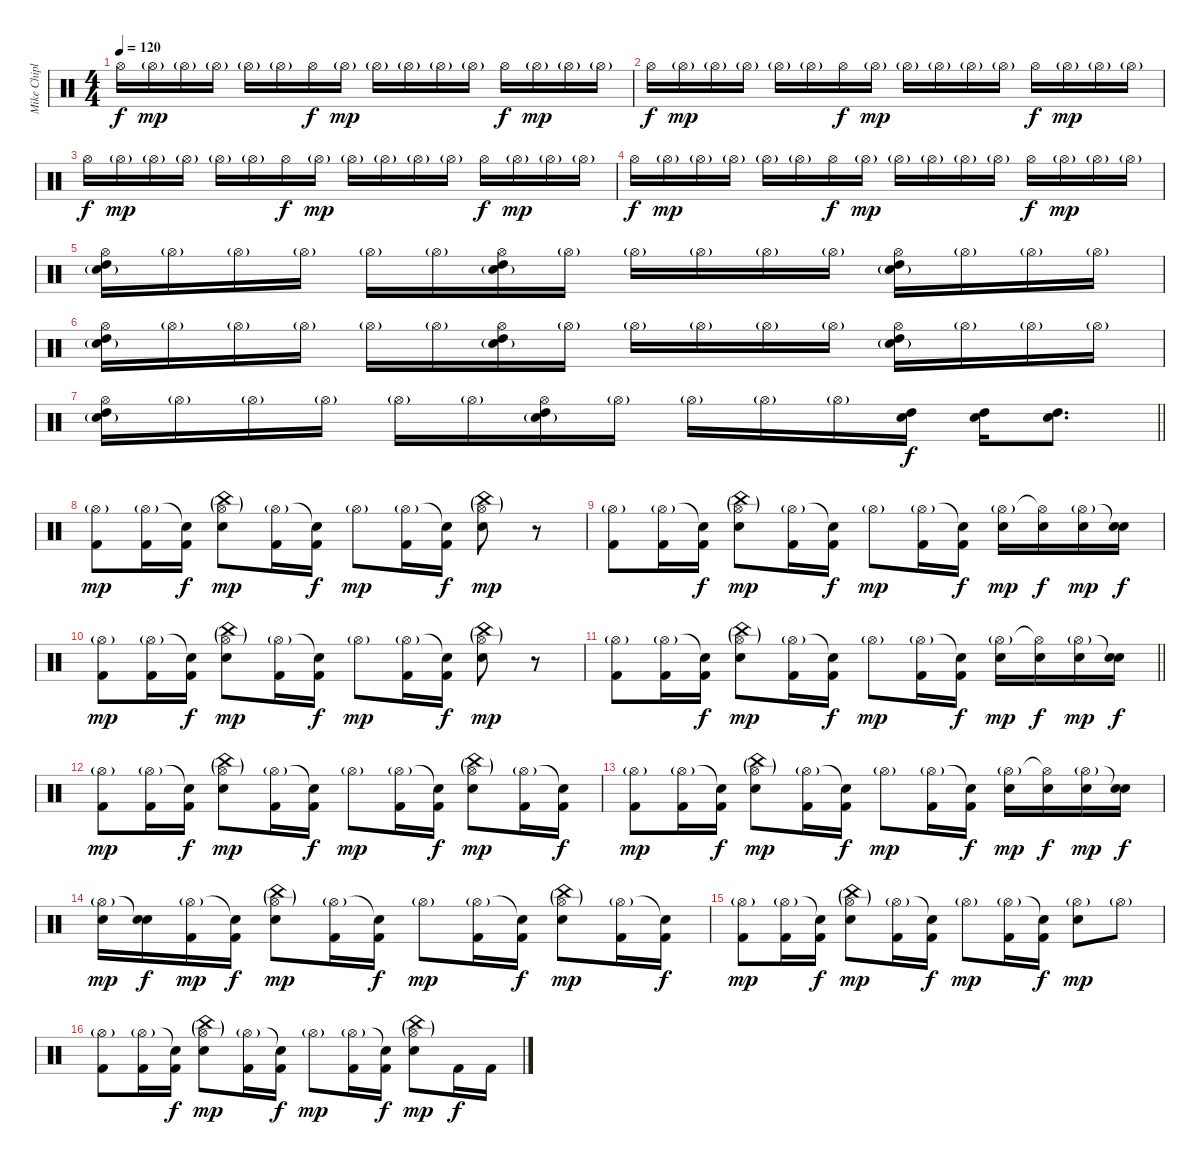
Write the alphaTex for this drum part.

\track ("Mike Chiplin" "Mike Chipl") {instrument percussion}
\staff {score}
\articulation defaults
\ts (4 4)
\tempo 120
\clef neutral
\ks c "Hi-Hat (open)".16{dy f} "Hi-Hat (open)"{g}.16{dy mp} "Hi-Hat (open)"{g}.16 "Hi-Hat (open)"{g}.16 "Hi-Hat (open)"{g}.16 "Hi-Hat (open)"{g}.16 "Hi-Hat (open)".16{dy f} "Hi-Hat (open)"{g}.16{dy mp} "Hi-Hat (open)"{g}.16 "Hi-Hat (open)"{g}.16 "Hi-Hat (open)"{g}.16 "Hi-Hat (open)"{g}.16 "Hi-Hat (open)".16{dy f} "Hi-Hat (open)"{g}.16{dy mp} "Hi-Hat (open)"{g}.16 "Hi-Hat (open)"{g}.16
|
"Hi-Hat (open)".16{dy f} "Hi-Hat (open)"{g}.16{dy mp} "Hi-Hat (open)"{g}.16 "Hi-Hat (open)"{g}.16 "Hi-Hat (open)"{g}.16 "Hi-Hat (open)"{g}.16 "Hi-Hat (open)".16{dy f} "Hi-Hat (open)"{g}.16{dy mp} "Hi-Hat (open)"{g}.16 "Hi-Hat (open)"{g}.16 "Hi-Hat (open)"{g}.16 "Hi-Hat (open)"{g}.16 "Hi-Hat (open)".16{dy f} "Hi-Hat (open)"{g}.16{dy mp} "Hi-Hat (open)"{g}.16 "Hi-Hat (open)"{g}.16 |
"Hi-Hat (open)".16{dy f} "Hi-Hat (open)"{g}.16{dy mp} "Hi-Hat (open)"{g}.16 "Hi-Hat (open)"{g}.16 "Hi-Hat (open)"{g}.16 "Hi-Hat (open)"{g}.16 "Hi-Hat (open)".16{dy f} "Hi-Hat (open)"{g}.16{dy mp} "Hi-Hat (open)"{g}.16 "Hi-Hat (open)"{g}.16 "Hi-Hat (open)"{g}.16 "Hi-Hat (open)"{g}.16 "Hi-Hat (open)".16{dy f} "Hi-Hat (open)"{g}.16{dy mp} "Hi-Hat (open)"{g}.16 "Hi-Hat (open)"{g}.16 |
"Hi-Hat (open)".16{dy f} "Hi-Hat (open)"{g}.16{dy mp} "Hi-Hat (open)"{g}.16 "Hi-Hat (open)"{g}.16 "Hi-Hat (open)"{g}.16 "Hi-Hat (open)"{g}.16 "Hi-Hat (open)".16{dy f} "Hi-Hat (open)"{g}.16{dy mp} "Hi-Hat (open)"{g}.16 "Hi-Hat (open)"{g}.16 "Hi-Hat (open)"{g}.16 "Hi-Hat (open)"{g}.16 "Hi-Hat (open)".16{dy f} "Hi-Hat (open)"{g}.16{dy mp} "Hi-Hat (open)"{g}.16 "Hi-Hat (open)"{g}.16 |
("Hi-Hat (open)" "High Tom (hit)" "Electric Snare (hit)"{g}).16 "Hi-Hat (open)"{g}.16 "Hi-Hat (open)"{g}.16 "Hi-Hat (open)"{g}.16 "Hi-Hat (open)"{g}.16 "Hi-Hat (open)"{g}.16 ("Hi-Hat (open)" "High Tom (hit)" "Electric Snare (hit)"{g}).16 "Hi-Hat (open)"{g}.16 "Hi-Hat (open)"{g}.16 "Hi-Hat (open)"{g}.16 "Hi-Hat (open)"{g}.16 "Hi-Hat (open)"{g}.16 ("Hi-Hat (open)" "High Tom (hit)" "Electric Snare (hit)"{g}).16 "Hi-Hat (open)"{g}.16 "Hi-Hat (open)"{g}.16 "Hi-Hat (open)"{g}.16 |
("Hi-Hat (open)" "High Tom (hit)" "Electric Snare (hit)"{g}).16 "Hi-Hat (open)"{g}.16 "Hi-Hat (open)"{g}.16 "Hi-Hat (open)"{g}.16 "Hi-Hat (open)"{g}.16 "Hi-Hat (open)"{g}.16 ("Hi-Hat (open)" "High Tom (hit)" "Electric Snare (hit)"{g}).16 "Hi-Hat (open)"{g}.16 "Hi-Hat (open)"{g}.16 "Hi-Hat (open)"{g}.16 "Hi-Hat (open)"{g}.16 "Hi-Hat (open)"{g}.16 ("Hi-Hat (open)" "High Tom (hit)" "Electric Snare (hit)"{g}).16 "Hi-Hat (open)"{g}.16 "Hi-Hat (open)"{g}.16 "Hi-Hat (open)"{g}.16 |
\barLineRight lightlight
("Hi-Hat (open)" "High Tom (hit)" "Electric Snare (hit)"{g}).16 "Hi-Hat (open)"{g}.16 "Hi-Hat (open)"{g}.16 "Hi-Hat (open)"{g}.16 "Hi-Hat (open)"{g}.16 "Hi-Hat (open)"{g}.16 ("Hi-Hat (open)" "High Tom (hit)" "Electric Snare (hit)"{g}).16 "Hi-Hat (open)"{g}.16 "Hi-Hat (open)"{g}.16 "Hi-Hat (open)"{g}.16 "Hi-Hat (open)"{g}.16 ("High Tom (hit)" "Electric Snare (hit)").16{dy f} ("High Tom (hit)" "Electric Snare (hit)").16 ("High Tom (hit)" "Electric Snare (hit)").8{d} |
("Hi-Hat (open)"{g} "Kick (hit) 2").8{dy mp} ("Hi-Hat (open)"{g} "Kick (hit) 2").16 ("Snare (hit)"{t} "Kick (hit) 2").16{dy f} ("China (hit)"{g} "Hi-Hat (open)"{g} "Electric Snare (hit)").8{dy mp} ("Hi-Hat (open)"{g} "Kick (hit) 2").16 ("Snare (hit)"{t} "Kick (hit) 2").16{dy f} "Hi-Hat (open)"{g}.8{dy mp} ("Hi-Hat (open)"{g} "Kick (hit) 2").16 ("Snare (hit)"{t} "Kick (hit) 2").16{dy f} ("China (hit)"{g} "Hi-Hat (open)"{g} "Electric Snare (hit)").8{dy mp} r.8 |
("Hi-Hat (open)"{g} "Kick (hit) 2").8 ("Hi-Hat (open)"{g} "Kick (hit) 2").16 ("Snare (hit)"{t} "Kick (hit) 2").16{dy f} ("China (hit)"{g} "Hi-Hat (open)"{g} "Electric Snare (hit)").8{dy mp} ("Hi-Hat (open)"{g} "Kick (hit) 2").16 ("Snare (hit)"{t} "Kick (hit) 2").16{dy f} "Hi-Hat (open)"{g}.8{dy mp} ("Hi-Hat (open)"{g} "Kick (hit) 2").16 ("Snare (hit)"{t} "Kick (hit) 2").16{dy f} ("Hi-Hat (open)"{g} "Electric Snare (hit)").16{dy mp} ("Hi-Hat (open)"{t} "Electric Snare (hit)").16{dy f} ("Hi-Hat (open)"{g} "Electric Snare (hit)").16{dy mp} ("Snare (hit)"{t} "Electric Snare (hit)").16{dy f} |
("Hi-Hat (open)"{g} "Kick (hit) 2").8{dy mp} ("Hi-Hat (open)"{g} "Kick (hit) 2").16 ("Snare (hit)"{t} "Kick (hit) 2").16{dy f} ("China (hit)"{g} "Hi-Hat (open)"{g} "Electric Snare (hit)").8{dy mp} ("Hi-Hat (open)"{g} "Kick (hit) 2").16 ("Snare (hit)"{t} "Kick (hit) 2").16{dy f} "Hi-Hat (open)"{g}.8{dy mp} ("Hi-Hat (open)"{g} "Kick (hit) 2").16 ("Snare (hit)"{t} "Kick (hit) 2").16{dy f} ("China (hit)"{g} "Hi-Hat (open)"{g} "Electric Snare (hit)").8{dy mp} r.8 |
\barLineRight lightlight
("Hi-Hat (open)"{g} "Kick (hit) 2").8 ("Hi-Hat (open)"{g} "Kick (hit) 2").16 ("Snare (hit)"{t} "Kick (hit) 2").16{dy f} ("China (hit)"{g} "Hi-Hat (open)"{g} "Electric Snare (hit)").8{dy mp} ("Hi-Hat (open)"{g} "Kick (hit) 2").16 ("Snare (hit)"{t} "Kick (hit) 2").16{dy f} "Hi-Hat (open)"{g}.8{dy mp} ("Hi-Hat (open)"{g} "Kick (hit) 2").16 ("Snare (hit)"{t} "Kick (hit) 2").16{dy f} ("Hi-Hat (open)"{g} "Electric Snare (hit)").16{dy mp} ("Hi-Hat (open)"{t} "Electric Snare (hit)").16{dy f} ("Hi-Hat (open)"{g} "Electric Snare (hit)").16{dy mp} ("Snare (hit)"{t} "Electric Snare (hit)").16{dy f} |
("Hi-Hat (open)"{g} "Kick (hit) 2").8{dy mp} ("Hi-Hat (open)"{g} "Kick (hit) 2").16 ("Snare (hit)"{t} "Kick (hit) 2").16{dy f} ("China (hit)"{g} "Hi-Hat (open)"{g} "Electric Snare (hit)").8{dy mp} ("Hi-Hat (open)"{g} "Kick (hit) 2").16 ("Snare (hit)"{t} "Kick (hit) 2").16{dy f} "Hi-Hat (open)"{g}.8{dy mp} ("Hi-Hat (open)"{g} "Kick (hit) 2").16 ("Snare (hit)"{t} "Kick (hit) 2").16{dy f} ("China (hit)"{g} "Hi-Hat (open)"{g} "Electric Snare (hit)").8{dy mp} ("Hi-Hat (open)"{g} "Kick (hit) 2").16 ("Snare (hit)"{t} "Kick (hit) 2").16{dy f} |
("Hi-Hat (open)"{g} "Kick (hit) 2").8{dy mp} ("Hi-Hat (open)"{g} "Kick (hit) 2").16 ("Snare (hit)"{t} "Kick (hit) 2").16{dy f} ("China (hit)"{g} "Hi-Hat (open)"{g} "Electric Snare (hit)").8{dy mp} ("Hi-Hat (open)"{g} "Kick (hit) 2").16 ("Snare (hit)"{t} "Kick (hit) 2").16{dy f} "Hi-Hat (open)"{g}.8{dy mp} ("Hi-Hat (open)"{g} "Kick (hit) 2").16 ("Snare (hit)"{t} "Kick (hit) 2").16{dy f} ("Hi-Hat (open)"{g} "Electric Snare (hit)").16{dy mp} ("Hi-Hat (open)"{t} "Electric Snare (hit)").16{dy f} ("Hi-Hat (open)"{g} "Electric Snare (hit)").16{dy mp} ("Snare (hit)"{t} "Electric Snare (hit)").16{dy f} |
("Hi-Hat (open)"{g} "Electric Snare (hit)").16{dy mp} ("Snare (hit)"{t} "Electric Snare (hit)").16{dy f} ("Hi-Hat (open)"{g} "Kick (hit) 2").16{dy mp} ("Snare (hit)"{t} "Kick (hit) 2").16{dy f} ("China (hit)"{g} "Hi-Hat (open)"{g} "Electric Snare (hit)").8{dy mp} ("Hi-Hat (open)"{g} "Kick (hit) 2").16 ("Snare (hit)"{t} "Kick (hit) 2").16{dy f} "Hi-Hat (open)"{g}.8{dy mp} ("Hi-Hat (open)"{g} "Kick (hit) 2").16 ("Snare (hit)"{t} "Kick (hit) 2").16{dy f} ("China (hit)"{g} "Hi-Hat (open)"{g} "Electric Snare (hit)").8{dy mp} ("Hi-Hat (open)"{g} "Kick (hit) 2").16 ("Snare (hit)"{t} "Kick (hit) 2").16{dy f} |
("Hi-Hat (open)"{g} "Kick (hit) 2").8{dy mp} ("Hi-Hat (open)"{g} "Kick (hit) 2").16 ("Snare (hit)"{t} "Kick (hit) 2").16{dy f} ("China (hit)"{g} "Hi-Hat (open)"{g} "Electric Snare (hit)").8{dy mp} ("Hi-Hat (open)"{g} "Kick (hit) 2").16 ("Snare (hit)"{t} "Kick (hit) 2").16{dy f} "Hi-Hat (open)"{g}.8{dy mp} ("Hi-Hat (open)"{g} "Kick (hit) 2").16 ("Snare (hit)"{t} "Kick (hit) 2").16{dy f} ("Hi-Hat (open)"{g} "Electric Snare (hit)").8{dy mp} "Hi-Hat (open)"{g}.8 |
("Hi-Hat (open)"{g} "Kick (hit) 2").8 ("Hi-Hat (open)"{g} "Kick (hit) 2").16 ("Snare (hit)"{t} "Kick (hit) 2").16{dy f} ("China (hit)"{g} "Hi-Hat (open)"{g} "Electric Snare (hit)").8{dy mp} ("Hi-Hat (open)"{g} "Kick (hit) 2").16 ("Snare (hit)"{t} "Kick (hit) 2").16{dy f} "Hi-Hat (open)"{g}.8{dy mp} ("Hi-Hat (open)"{g} "Kick (hit) 2").16 ("Snare (hit)"{t} "Kick (hit) 2").16{dy f} ("China (hit)"{g} "Hi-Hat (open)"{g} "Electric Snare (hit)").8{dy mp} "Kick (hit) 2".16{dy f} "Kick (hit) 2".16
